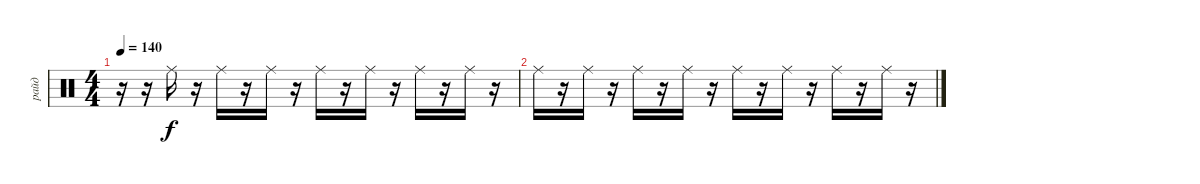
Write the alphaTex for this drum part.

\track ("райд" "райд") {mute instrument percussion}
\staff {score}
\articulation defaults
\ts (4 4)
\tempo 140
\clef neutral
\ks c
r.16{dy f} r.16 "Ride (middle)".16 r.16 "Ride (middle)".16 r.16 "Ride (middle)".16 r.16 "Ride (middle)".16 r.16 "Ride (middle)".16 r.16 "Ride (middle)".16 r.16 "Ride (middle)".16 r.16 |
"Ride (middle)".16 r.16 "Ride (middle)".16 r.16 "Ride (middle)".16 r.16 "Ride (middle)".16 r.16 "Ride (middle)".16 r.16 "Ride (middle)".16 r.16 "Ride (middle)".16 r.16 "Ride (middle)".16 r.16
